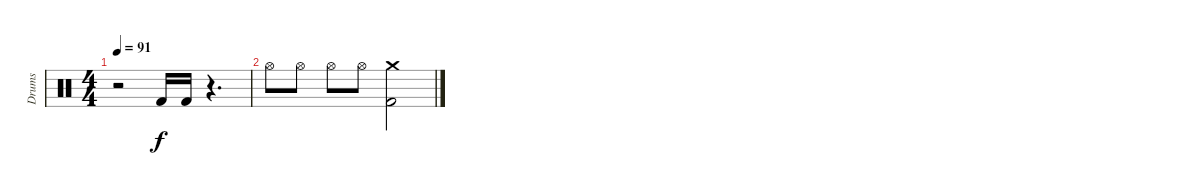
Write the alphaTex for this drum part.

\track ("Drums" "Drums") {instrument percussion}
\staff {score}
\articulation defaults
\ts (4 4)
\tempo 91
\clef neutral
\ks c
r.2{dy f} "Kick (hit) 2".16 "Kick (hit) 2".16 r.4{d} |
"Hi-Hat (open)".8 "Hi-Hat (open)".8 "Hi-Hat (open)".8 "Hi-Hat (open)".8 ("Crash medium (hit)" "Kick (hit) 2").2
